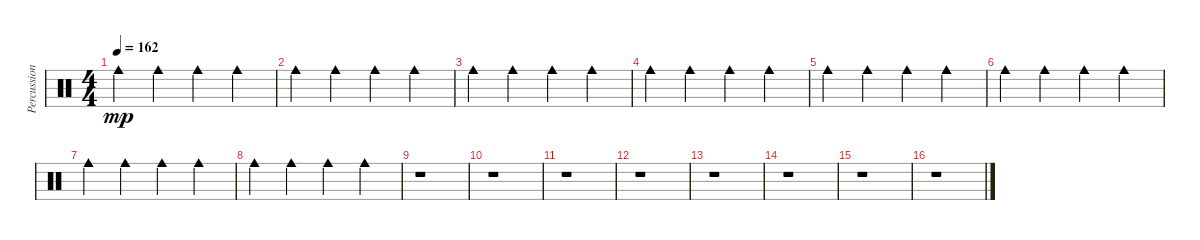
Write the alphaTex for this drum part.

\track ("Percussions" "Percussion") {instrument percussion}
\staff {score}
\articulation defaults
\ts (4 4)
\tempo 162
\clef neutral
\ks c "Cowbell medium (hit)".4{dy mp} "Cowbell medium (hit)".4 "Cowbell medium (hit)".4 "Cowbell medium (hit)".4
|
"Cowbell medium (hit)".4 "Cowbell medium (hit)".4 "Cowbell medium (hit)".4 "Cowbell medium (hit)".4 |
"Cowbell medium (hit)".4 "Cowbell medium (hit)".4 "Cowbell medium (hit)".4 "Cowbell medium (hit)".4 |
"Cowbell medium (hit)".4 "Cowbell medium (hit)".4 "Cowbell medium (hit)".4 "Cowbell medium (hit)".4 |
"Cowbell medium (hit)".4 "Cowbell medium (hit)".4 "Cowbell medium (hit)".4 "Cowbell medium (hit)".4 |
"Cowbell medium (hit)".4 "Cowbell medium (hit)".4 "Cowbell medium (hit)".4 "Cowbell medium (hit)".4 |
"Cowbell medium (hit)".4 "Cowbell medium (hit)".4 "Cowbell medium (hit)".4 "Cowbell medium (hit)".4 |
"Cowbell medium (hit)".4 "Cowbell medium (hit)".4 "Cowbell medium (hit)".4 "Cowbell medium (hit)".4 |
r.1 |
r.1 |
r.1 |
r.1 |
r.1 |
r.1 |
r.1 |
r.1
